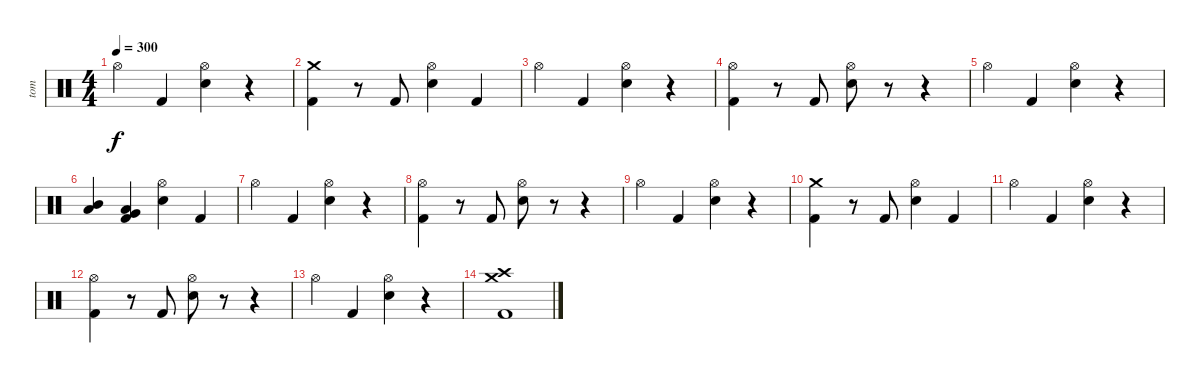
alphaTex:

\track ("tom" "tom") {instrument percussion}
\staff {score}
\articulation defaults
\ts (4 4)
\tempo 300
\clef neutral
\ks c "Hi-Hat (open)".4{dy f} "Kick (hit) 2".4
("Hi-Hat (open)" "Electric Snare (hit)").4 r.4 |
("Crash medium (hit)" "Kick (hit) 2").4 r.8 "Kick (hit) 2".8 ("Hi-Hat (open)" "Electric Snare (hit)").4 "Kick (hit) 2".4 |
"Hi-Hat (open)".4 "Kick (hit) 2".4 ("Hi-Hat (open)" "Electric Snare (hit)").4 r.4 |
("Hi-Hat (open)" "Kick (hit) 2").4 r.8 "Kick (hit) 2".8 ("Hi-Hat (open)" "Electric Snare (hit)").8 r.8 r.4 |
"Hi-Hat (open)".4 "Kick (hit) 2".4 ("Hi-Hat (open)" "Electric Snare (hit)").4 r.4 |
("Low Tom (hit)" "Mid Tom (hit)").4 ("Kick (hit) 2" "Low Tom (hit)" "Very Low Tom (hit)").4 ("Hi-Hat (open)" "Electric Snare (hit)").4 "Kick (hit) 2".4 |
"Hi-Hat (open)".4 "Kick (hit) 2".4 ("Hi-Hat (open)" "Electric Snare (hit)").4 r.4 |
("Hi-Hat (open)" "Kick (hit) 2").4 r.8 "Kick (hit) 2".8 ("Hi-Hat (open)" "Electric Snare (hit)").8 r.8 r.4 |
"Hi-Hat (open)".4 "Kick (hit) 2".4 ("Hi-Hat (open)" "Electric Snare (hit)").4 r.4 |
("Crash medium (hit)" "Kick (hit) 2").4 r.8 "Kick (hit) 2".8 ("Hi-Hat (open)" "Electric Snare (hit)").4 "Kick (hit) 2".4 |
"Hi-Hat (open)".4 "Kick (hit) 2".4 ("Hi-Hat (open)" "Electric Snare (hit)").4 r.4 |
("Hi-Hat (open)" "Kick (hit) 2").4 r.8 "Kick (hit) 2".8 ("Hi-Hat (open)" "Electric Snare (hit)").8 r.8 r.4 |
"Hi-Hat (open)".4 "Kick (hit) 2".4 ("Hi-Hat (open)" "Electric Snare (hit)").4 r.4 |
("Kick (hit) 2" "Crash medium (hit)" "Crash high (hit)").1
